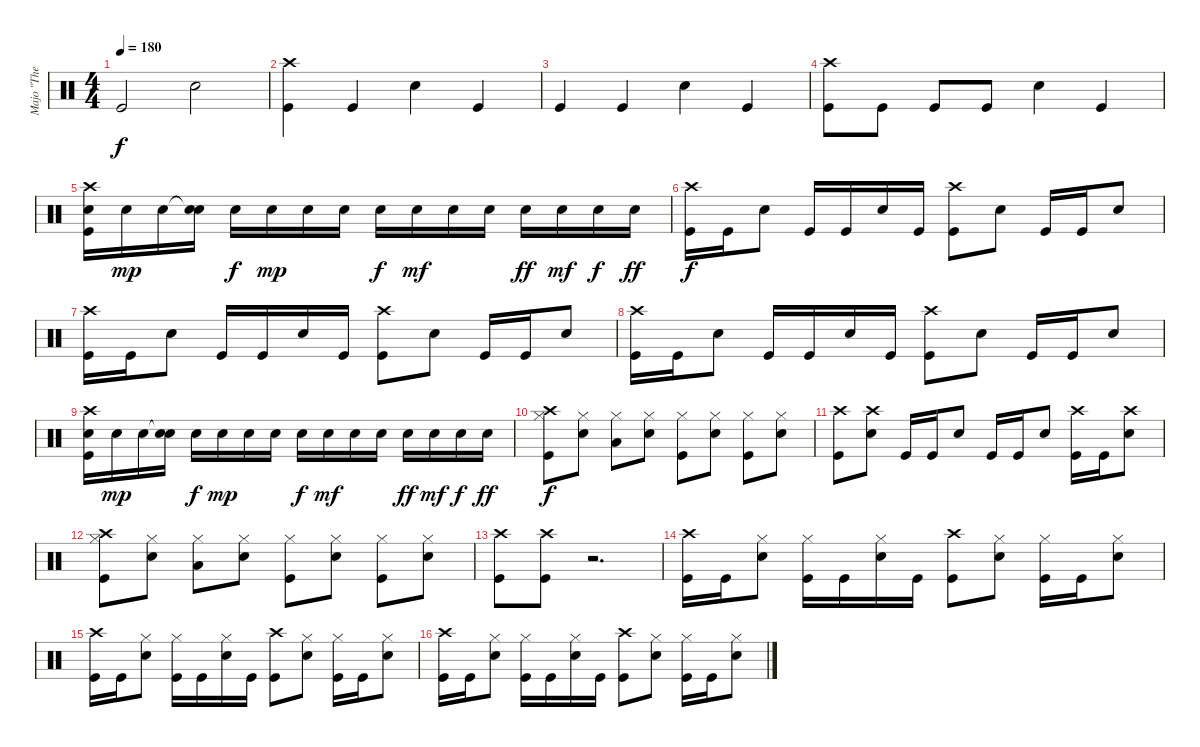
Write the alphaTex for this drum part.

\track ("Majo \"The Dremmel\" Hirt" "Majo \"The ") {instrument percussion}
\staff {score}
\articulation defaults
\ts (4 4)
\tempo 180
\clef neutral
\ks c "Kick (hit)".2{dy f} "Electric Snare (hit)".2
|
("Crash high (hit)" "Kick (hit)").4 "Kick (hit)".4 "Electric Snare (hit)".4 "Kick (hit)".4 |
"Kick (hit)".4 "Kick (hit)".4 "Electric Snare (hit)".4 "Kick (hit)".4 |
("Crash high (hit)" "Kick (hit)").8 "Kick (hit)".8 "Kick (hit)".8 "Kick (hit)".8 "Electric Snare (hit)".4 "Kick (hit)".4 |
("Kick (hit)" "Crash high (hit)" "Electric Snare (hit)").16 "Electric Snare (hit)".16{dy mp} "Electric Snare (hit)".16 ("Snare (hit)"{t} "Electric Snare (hit)").16 "Electric Snare (hit)".16{dy f} "Electric Snare (hit)".16{dy mp} "Electric Snare (hit)".16 "Electric Snare (hit)".16 "Electric Snare (hit)".16{dy f} "Electric Snare (hit)".16{dy mf} "Electric Snare (hit)".16 "Electric Snare (hit)".16 "Electric Snare (hit)".16{dy ff} "Electric Snare (hit)".16{dy mf} "Electric Snare (hit)".16{dy f} "Electric Snare (hit)".16{dy ff} |
("Crash high (hit)" "Kick (hit)").16{dy f} "Kick (hit)".16 "Electric Snare (hit)".8 "Kick (hit)".16 "Kick (hit)".16 "Electric Snare (hit)".16 "Kick (hit)".16 ("Crash high (hit)" "Kick (hit)").8 "Electric Snare (hit)".8 "Kick (hit)".16 "Kick (hit)".16 "Electric Snare (hit)".8 |
("Crash high (hit)" "Kick (hit)").16 "Kick (hit)".16 "Electric Snare (hit)".8 "Kick (hit)".16 "Kick (hit)".16 "Electric Snare (hit)".16 "Kick (hit)".16 ("Crash high (hit)" "Kick (hit)").8 "Electric Snare (hit)".8 "Kick (hit)".16 "Kick (hit)".16 "Electric Snare (hit)".8 |
("Crash high (hit)" "Kick (hit)").16 "Kick (hit)".16 "Electric Snare (hit)".8 "Kick (hit)".16 "Kick (hit)".16 "Electric Snare (hit)".16 "Kick (hit)".16 ("Crash high (hit)" "Kick (hit)").8 "Electric Snare (hit)".8 "Kick (hit)".16 "Kick (hit)".16 "Electric Snare (hit)".8 |
("Kick (hit)" "Crash high (hit)" "Electric Snare (hit)").16 "Electric Snare (hit)".16{dy mp} "Electric Snare (hit)".16 ("Snare (hit)"{t} "Electric Snare (hit)").16 "Electric Snare (hit)".16{dy f} "Electric Snare (hit)".16{dy mp} "Electric Snare (hit)".16 "Electric Snare (hit)".16 "Electric Snare (hit)".16{dy f} "Electric Snare (hit)".16{dy mf} "Electric Snare (hit)".16 "Electric Snare (hit)".16 "Electric Snare (hit)".16{dy ff} "Electric Snare (hit)".16{dy mf} "Electric Snare (hit)".16{dy f} "Electric Snare (hit)".16{dy ff} |
("Crash high (hit)" "Hi-Hat (closed)" "Kick (hit)").8{dy f} ("Hi-Hat (closed)" "Electric Snare (hit)").8 ("Hi-Hat (closed)" "Low Tom (hit)").8 ("Hi-Hat (closed)" "Electric Snare (hit)").8 ("Hi-Hat (closed)" "Kick (hit)").8 ("Hi-Hat (closed)" "Electric Snare (hit)").8 ("Hi-Hat (closed)" "Kick (hit)").8 ("Hi-Hat (closed)" "Electric Snare (hit)").8 |
("Crash high (hit)" "Kick (hit)").8 ("Crash high (hit)" "Electric Snare (hit)").8 "Kick (hit)".16 "Kick (hit)".16 "Electric Snare (hit)".8 "Kick (hit)".16 "Kick (hit)".16 "Electric Snare (hit)".8 ("Crash high (hit)" "Kick (hit)").16 "Kick (hit)".16 ("Crash high (hit)" "Electric Snare (hit)").8 |
("Crash high (hit)" "Hi-Hat (closed)" "Kick (hit)").8 ("Hi-Hat (closed)" "Electric Snare (hit)").8 ("Hi-Hat (closed)" "Low Tom (hit)").8 ("Hi-Hat (closed)" "Electric Snare (hit)").8 ("Hi-Hat (closed)" "Kick (hit)").8 ("Hi-Hat (closed)" "Electric Snare (hit)").8 ("Hi-Hat (closed)" "Kick (hit)").8 ("Hi-Hat (closed)" "Electric Snare (hit)").8 |
("Crash high (hit)" "Kick (hit)").8 ("Crash high (hit)" "Kick (hit)").8 r.2{d} |
("Crash high (hit)" "Kick (hit)").16 "Kick (hit)".16 ("Hi-Hat (closed)" "Electric Snare (hit)").8 ("Hi-Hat (closed)" "Kick (hit)").16 "Kick (hit)".16 ("Hi-Hat (closed)" "Electric Snare (hit)").16 "Kick (hit)".16 ("Crash high (hit)" "Kick (hit)").8 ("Hi-Hat (closed)" "Electric Snare (hit)").8 ("Hi-Hat (closed)" "Kick (hit)").16 "Kick (hit)".16 ("Hi-Hat (closed)" "Electric Snare (hit)").8 |
("Crash high (hit)" "Kick (hit)").16 "Kick (hit)".16 ("Hi-Hat (closed)" "Electric Snare (hit)").8 ("Hi-Hat (closed)" "Kick (hit)").16 "Kick (hit)".16 ("Hi-Hat (closed)" "Electric Snare (hit)").16 "Kick (hit)".16 ("Crash high (hit)" "Kick (hit)").8 ("Hi-Hat (closed)" "Electric Snare (hit)").8 ("Hi-Hat (closed)" "Kick (hit)").16 "Kick (hit)".16 ("Hi-Hat (closed)" "Electric Snare (hit)").8 |
("Crash high (hit)" "Kick (hit)").16 "Kick (hit)".16 ("Hi-Hat (closed)" "Electric Snare (hit)").8 ("Hi-Hat (closed)" "Kick (hit)").16 "Kick (hit)".16 ("Hi-Hat (closed)" "Electric Snare (hit)").16 "Kick (hit)".16 ("Crash high (hit)" "Kick (hit)").8 ("Hi-Hat (closed)" "Electric Snare (hit)").8 ("Hi-Hat (closed)" "Kick (hit)").16 "Kick (hit)".16 ("Hi-Hat (closed)" "Electric Snare (hit)").8
